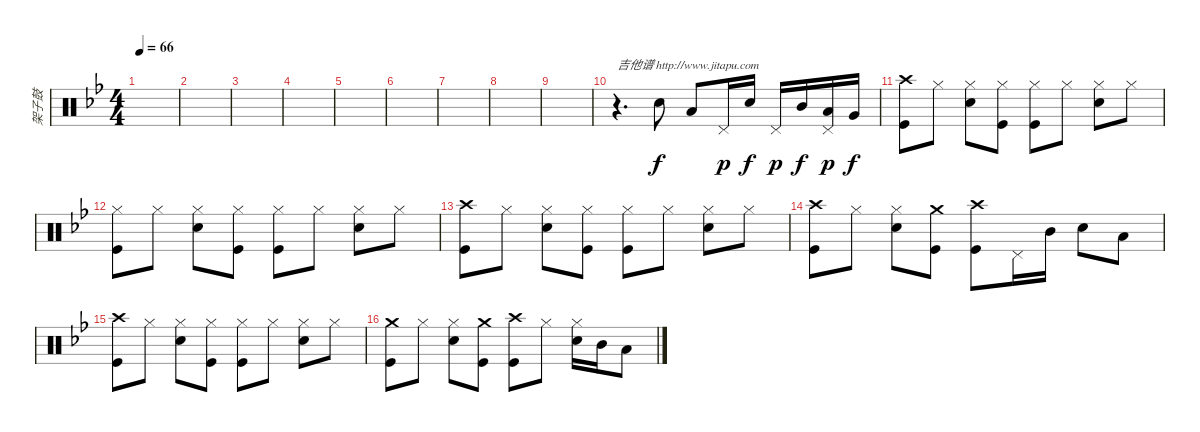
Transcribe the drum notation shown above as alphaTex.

\track ("架子鼓" "架子鼓") {instrument percussion}
\staff {score}
\articulation defaults
\ts (4 4)
\tempo 66
\clef neutral
\ks bb
|
|
|
|
|
|
|
|
|
r.4{d txt "吉他谱 http://www.jitapu.com"} "Electric Snare (hit)".8 "Low Tom (hit)".8 "Pedal Hi-Hat (hit)".16{dy p} "Electric Snare (hit)".16{dy f} "Pedal Hi-Hat (hit)".16{dy p} "Mid Tom (hit)".16{dy f} ("Low Tom (hit)" "Pedal Hi-Hat (hit)").16{dy p} "Very Low Tom (hit)".16{dy f} |
("Crash high (hit)" "Kick (hit)").8 "Hi-Hat (closed)".8 ("Hi-Hat (closed)" "Electric Snare (hit)").8 ("Hi-Hat (closed)" "Kick (hit)").8 ("Hi-Hat (closed)" "Kick (hit)").8 "Hi-Hat (closed)".8 ("Hi-Hat (closed)" "Electric Snare (hit)").8 "Hi-Hat (closed)".8 |
("Hi-Hat (closed)" "Kick (hit)").8 "Hi-Hat (closed)".8 ("Hi-Hat (closed)" "Electric Snare (hit)").8 ("Hi-Hat (closed)" "Kick (hit)").8 ("Hi-Hat (closed)" "Kick (hit)").8 "Hi-Hat (closed)".8 ("Hi-Hat (closed)" "Electric Snare (hit)").8 "Hi-Hat (closed)".8 |
("Crash high (hit)" "Kick (hit)").8 "Hi-Hat (closed)".8 ("Hi-Hat (closed)" "Electric Snare (hit)").8 ("Hi-Hat (closed)" "Kick (hit)").8 ("Hi-Hat (closed)" "Kick (hit)").8 "Hi-Hat (closed)".8 ("Hi-Hat (closed)" "Electric Snare (hit)").8 "Hi-Hat (closed)".8 |
("Crash high (hit)" "Kick (hit)").8 "Hi-Hat (closed)".8 ("Hi-Hat (closed)" "Electric Snare (hit)").8 ("Crash medium (hit)" "Kick (hit)").8 ("Crash high (hit)" "Kick (hit)").8 "Pedal Hi-Hat (hit)".16 "Mid Tom (hit)".16 "Electric Snare (hit)".8 "Low Tom (hit)".8 |
("Crash high (hit)" "Kick (hit)").8 "Hi-Hat (closed)".8 ("Hi-Hat (closed)" "Electric Snare (hit)").8 ("Hi-Hat (closed)" "Kick (hit)").8 ("Hi-Hat (closed)" "Kick (hit)").8 "Hi-Hat (closed)".8 ("Hi-Hat (closed)" "Electric Snare (hit)").8 "Hi-Hat (closed)".8 |
("Crash medium (hit)" "Kick (hit)").8 "Hi-Hat (closed)".8 ("Hi-Hat (closed)" "Electric Snare (hit)").8 ("Crash medium (hit)" "Kick (hit)").8 ("Crash high (hit)" "Kick (hit)").8 "Hi-Hat (closed)".8 ("Hi-Hat (closed)" "Electric Snare (hit)").16 "Mid Tom (hit)".16 "Low Tom (hit)".8
